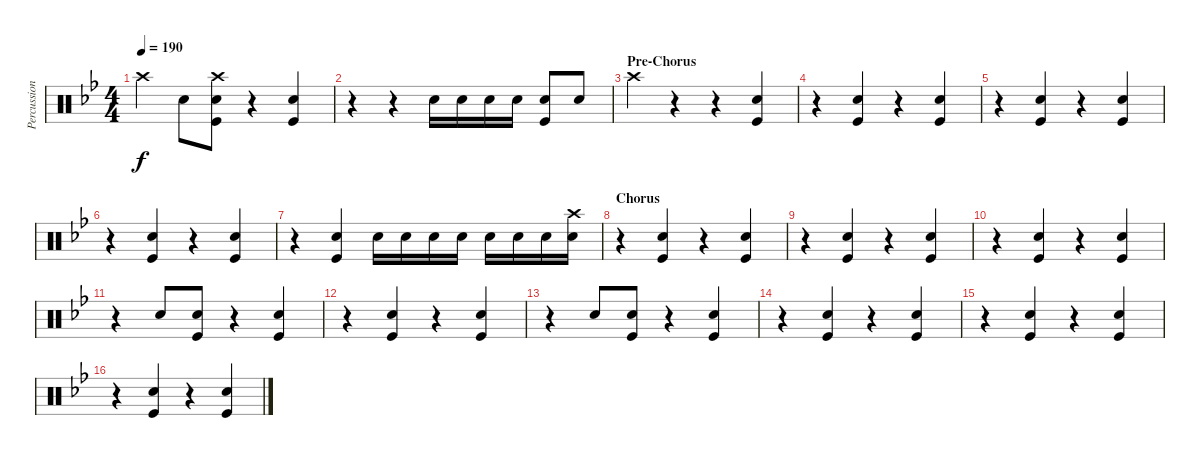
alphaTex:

\track ("Percussion" "Percussion") {instrument percussion}
\staff {score}
\articulation defaults
\ts (4 4)
\tempo 190
\clef neutral
\ks bb "Crash high (hit)".4{dy f} "Snare (hit) 2".8
("Kick (hit)" "Snare (hit) 2" "Crash high (hit)").8 r.4 ("Kick (hit)" "Snare (hit) 2").4 |
r.4 r.4 "Snare (hit) 2".16 "Snare (hit) 2".16 "Snare (hit) 2".16 "Snare (hit) 2".16 ("Kick (hit)" "Snare (hit) 2").8 "Snare (hit) 2".8 |
\section ("" "Pre-Chorus")
"Crash high (hit)".4 r.4 r.4 ("Kick (hit)" "Snare (hit) 2").4 |
r.4 ("Kick (hit)" "Snare (hit) 2").4 r.4 ("Kick (hit)" "Snare (hit) 2").4 |
r.4 ("Kick (hit)" "Snare (hit) 2").4 r.4 ("Kick (hit)" "Snare (hit) 2").4 |
r.4 ("Kick (hit)" "Snare (hit) 2").4 r.4 ("Kick (hit)" "Snare (hit) 2").4 |
r.4 ("Kick (hit)" "Snare (hit) 2").4 "Snare (hit) 2".16 "Snare (hit) 2".16 "Snare (hit) 2".16 "Snare (hit) 2".16 "Snare (hit) 2".16 "Snare (hit) 2".16 "Snare (hit) 2".16 ("Snare (hit) 2" "Crash high (hit)").16 |
\section ("" "Chorus")
r.4 ("Kick (hit)" "Snare (hit) 2").4 r.4 ("Kick (hit)" "Snare (hit) 2").4 |
r.4 ("Kick (hit)" "Snare (hit) 2").4 r.4 ("Kick (hit)" "Snare (hit) 2").4 |
r.4 ("Kick (hit)" "Snare (hit) 2").4 r.4 ("Kick (hit)" "Snare (hit) 2").4 |
r.4 "Snare (hit) 2".8 ("Kick (hit)" "Snare (hit) 2").8 r.4 ("Kick (hit)" "Snare (hit) 2").4 |
r.4 ("Kick (hit)" "Snare (hit) 2").4 r.4 ("Kick (hit)" "Snare (hit) 2").4 |
r.4 "Snare (hit) 2".8 ("Kick (hit)" "Snare (hit) 2").8 r.4 ("Kick (hit)" "Snare (hit) 2").4 |
r.4 ("Kick (hit)" "Snare (hit) 2").4 r.4 ("Kick (hit)" "Snare (hit) 2").4 |
r.4 ("Kick (hit)" "Snare (hit) 2").4 r.4 ("Kick (hit)" "Snare (hit) 2").4 |
r.4 ("Kick (hit)" "Snare (hit) 2").4 r.4 ("Kick (hit)" "Snare (hit) 2").4
